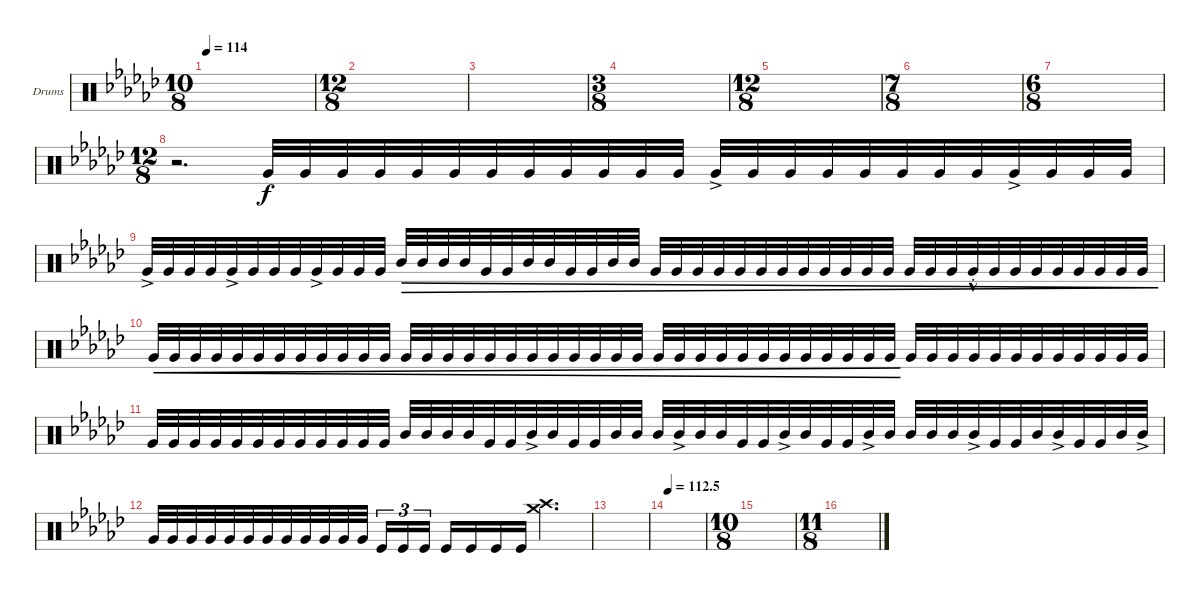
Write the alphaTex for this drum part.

\bracketExtendMode groupsimilarinstruments
\firstSystemTrackNameOrientation horizontal
\otherSystemsTrackNameOrientation horizontal
\track ("Drumkit" "Drums") {instrument percussion}
\staff {score}
\articulation defaults
\ts (10 8)
\tempo 114
\clef neutral
\ks ebminor
|
\ts (12 8)
|
|
\ts (3 8)
|
\ts (12 8)
|
\ts (7 8)
|
\ts (6 8)
|
\ts (12 8)
r.2{d} "Very Low Tom (hit)".32 "Very Low Tom (hit)".32 "Very Low Tom (hit)".32 "Very Low Tom (hit)".32 "Very Low Tom (hit)".32 "Very Low Tom (hit)".32 "Very Low Tom (hit)".32 "Very Low Tom (hit)".32 "Very Low Tom (hit)".32 "Very Low Tom (hit)".32 "Very Low Tom (hit)".32 "Very Low Tom (hit)".32 "Very Low Tom (hit)"{ac}.32 "Very Low Tom (hit)".32 "Very Low Tom (hit)".32 "Very Low Tom (hit)".32 "Very Low Tom (hit)".32 "Very Low Tom (hit)".32 "Very Low Tom (hit)".32 "Very Low Tom (hit)".32 "Very Low Tom (hit)"{ac}.32 "Very Low Tom (hit)".32 "Very Low Tom (hit)".32 "Very Low Tom (hit)".32 |
"Very Low Tom (hit)"{ac}.32 "Very Low Tom (hit)".32 "Very Low Tom (hit)".32 "Very Low Tom (hit)".32 "Very Low Tom (hit)"{ac}.32 "Very Low Tom (hit)".32 "Very Low Tom (hit)".32 "Very Low Tom (hit)".32 "Very Low Tom (hit)"{ac}.32 "Very Low Tom (hit)".32 "Very Low Tom (hit)".32 "Very Low Tom (hit)".32 "Mid Tom (hit)".32{dec} "Mid Tom (hit)".32{dec} "Mid Tom (hit)".32{dec} "Mid Tom (hit)".32{dec} "Very Low Tom (hit)".32{dec} "Very Low Tom (hit)".32{dec} "Mid Tom (hit)".32{dec} "Mid Tom (hit)".32{dec} "Very Low Tom (hit)".32{dec} "Very Low Tom (hit)".32{dec} "Mid Tom (hit)".32{dec} "Mid Tom (hit)".32{dec} "Very Low Tom (hit)".32{dec} "Very Low Tom (hit)".32{dec} "Very Low Tom (hit)".32{dec} "Very Low Tom (hit)".32{dec} "Very Low Tom (hit)".32{dec} "Very Low Tom (hit)".32{dec} "Very Low Tom (hit)".32{dec} "Very Low Tom (hit)".32{dec} "Very Low Tom (hit)".32{dec} "Very Low Tom (hit)".32{dec} "Very Low Tom (hit)".32{dec} "Very Low Tom (hit)".32{dec} "Very Low Tom (hit)".32{dec} "Very Low Tom (hit)".32{dec} "Very Low Tom (hit)".32{dec} "Very Low Tom (hit)"{hac st}.32{dec} "Very Low Tom (hit)".32{dec} "Very Low Tom (hit)".32{dec} "Very Low Tom (hit)".32{dec} "Very Low Tom (hit)".32{dec} "Very Low Tom (hit)".32{dec} "Very Low Tom (hit)".32{dec} "Very Low Tom (hit)".32{dec} "Very Low Tom (hit)".32{dec} |
"Very Low Tom (hit)".32{cre} "Very Low Tom (hit)".32{cre} "Very Low Tom (hit)".32{cre} "Very Low Tom (hit)".32{cre} "Very Low Tom (hit)".32{cre} "Very Low Tom (hit)".32{cre} "Very Low Tom (hit)".32{cre} "Very Low Tom (hit)".32{cre} "Very Low Tom (hit)".32{cre} "Very Low Tom (hit)".32{cre} "Very Low Tom (hit)".32{cre} "Very Low Tom (hit)".32{cre} "Very Low Tom (hit)".32{cre} "Very Low Tom (hit)".32{cre} "Very Low Tom (hit)".32{cre} "Very Low Tom (hit)".32{cre} "Very Low Tom (hit)".32{cre} "Very Low Tom (hit)".32{cre} "Very Low Tom (hit)".32{cre} "Very Low Tom (hit)".32{cre} "Very Low Tom (hit)".32{cre} "Very Low Tom (hit)".32{cre} "Very Low Tom (hit)".32{cre} "Very Low Tom (hit)".32{cre} "Very Low Tom (hit)".32{cre} "Very Low Tom (hit)".32{cre} "Very Low Tom (hit)".32{cre} "Very Low Tom (hit)".32{cre} "Very Low Tom (hit)".32{cre} "Very Low Tom (hit)".32{cre} "Very Low Tom (hit)".32{cre} "Very Low Tom (hit)".32{cre} "Very Low Tom (hit)".32{cre} "Very Low Tom (hit)".32{cre} "Very Low Tom (hit)".32{cre} "Very Low Tom (hit)".32{cre} "Very Low Tom (hit)".32 "Very Low Tom (hit)".32 "Very Low Tom (hit)".32 "Very Low Tom (hit)".32 "Very Low Tom (hit)".32 "Very Low Tom (hit)".32 "Very Low Tom (hit)".32 "Very Low Tom (hit)".32 "Very Low Tom (hit)".32 "Very Low Tom (hit)".32 "Very Low Tom (hit)".32 "Very Low Tom (hit)".32 |
"Very Low Tom (hit)".32 "Very Low Tom (hit)".32 "Very Low Tom (hit)".32 "Very Low Tom (hit)".32 "Very Low Tom (hit)".32 "Very Low Tom (hit)".32 "Very Low Tom (hit)".32 "Very Low Tom (hit)".32 "Very Low Tom (hit)".32 "Very Low Tom (hit)".32 "Very Low Tom (hit)".32 "Very Low Tom (hit)".32 "Mid Tom (hit)".32 "Mid Tom (hit)".32 "Mid Tom (hit)".32 "Mid Tom (hit)".32 "Very Low Tom (hit)".32 "Very Low Tom (hit)".32 "Mid Tom (hit)"{ac}.32 "Mid Tom (hit)".32 "Very Low Tom (hit)".32 "Very Low Tom (hit)".32 "Mid Tom (hit)".32 "Mid Tom (hit)".32 "Mid Tom (hit)".32 "Mid Tom (hit)"{ac}.32 "Mid Tom (hit)".32 "Mid Tom (hit)".32 "Very Low Tom (hit)".32 "Very Low Tom (hit)".32 "Mid Tom (hit)"{ac}.32 "Mid Tom (hit)".32 "Very Low Tom (hit)".32 "Very Low Tom (hit)".32 "Mid Tom (hit)"{ac}.32 "Mid Tom (hit)".32 "Mid Tom (hit)".32 "Mid Tom (hit)".32 "Mid Tom (hit)".32 "Mid Tom (hit)"{ac}.32 "Very Low Tom (hit)".32 "Very Low Tom (hit)".32 "Mid Tom (hit)".32 "Mid Tom (hit)"{ac}.32 "Very Low Tom (hit)".32 "Very Low Tom (hit)".32 "Mid Tom (hit)".32 "Mid Tom (hit)"{ac}.32 |
"Very Low Tom (hit)".32 "Very Low Tom (hit)".32 "Very Low Tom (hit)".32 "Very Low Tom (hit)".32 "Very Low Tom (hit)".32 "Very Low Tom (hit)".32 "Very Low Tom (hit)".32 "Very Low Tom (hit)".32 "Very Low Tom (hit)".32 "Very Low Tom (hit)".32 "Very Low Tom (hit)".32 "Very Low Tom (hit)".32 "Kick (hit)".16{tu (3 2)} "Kick (hit)".16{tu (3 2)} "Kick (hit)".16{tu (3 2)} "Kick (hit)".16 "Kick (hit)".16 "Kick (hit)".16 "Kick (hit)".16 ("Crash medium (hit)" "Crash high (hit)").2{d dy f} |
|
\tempo
112.5 |
\ts (10 8)
|
\ts (11 8)
